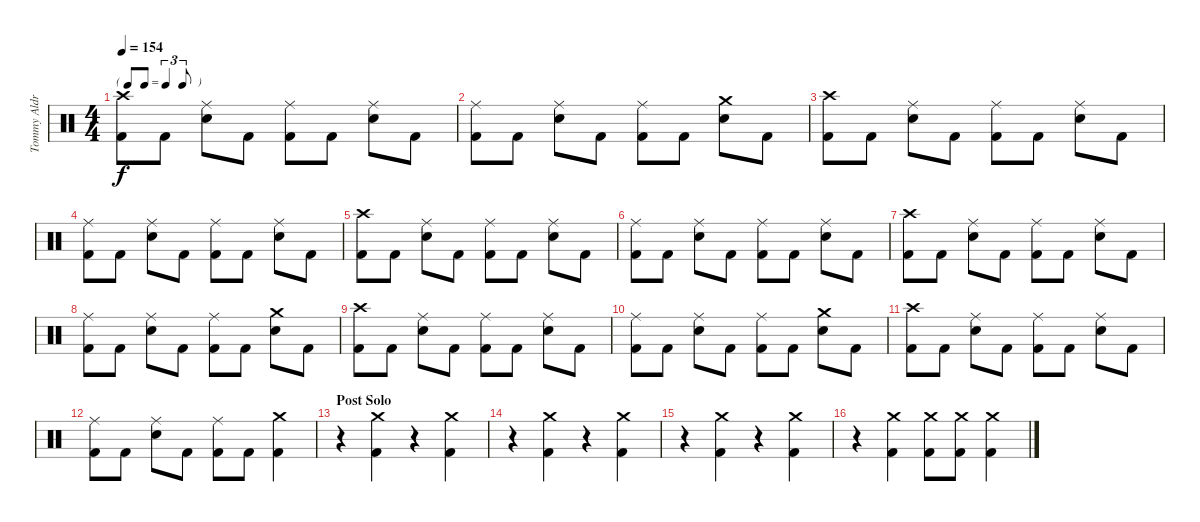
\track ("Tommy Aldridge (Drums)" "Tommy Aldr") {instrument percussion}
\staff {score}
\articulation defaults
\ts (4 4)
\tf triplet8th
\tempo 154
\clef neutral
\ks c
("Crash high (hit)" "Kick (hit) 2").8{dy f} "Kick (hit) 2".8 ("Ride (middle)" "Electric Snare (hit)").8 "Kick (hit) 2".8 ("Ride (middle)" "Kick (hit) 2").8 "Kick (hit) 2".8 ("Ride (middle)" "Electric Snare (hit)").8 "Kick (hit) 2".8 |
("Ride (middle)" "Kick (hit) 2").8 "Kick (hit) 2".8 ("Ride (middle)" "Electric Snare (hit)").8 "Kick (hit) 2".8 ("Ride (middle)" "Kick (hit) 2").8 "Kick (hit) 2".8 ("Crash medium (hit)" "Electric Snare (hit)").8 "Kick (hit) 2".8 |
("Crash high (hit)" "Kick (hit) 2").8 "Kick (hit) 2".8 ("Ride (middle)" "Electric Snare (hit)").8 "Kick (hit) 2".8 ("Ride (middle)" "Kick (hit) 2").8 "Kick (hit) 2".8 ("Ride (middle)" "Electric Snare (hit)").8 "Kick (hit) 2".8 |
("Ride (middle)" "Kick (hit) 2").8 "Kick (hit) 2".8 ("Ride (middle)" "Electric Snare (hit)").8 "Kick (hit) 2".8 ("Ride (middle)" "Kick (hit) 2").8 "Kick (hit) 2".8 ("Ride (middle)" "Electric Snare (hit)").8 "Kick (hit) 2".8 |
("Crash high (hit)" "Kick (hit) 2").8 "Kick (hit) 2".8 ("Ride (middle)" "Electric Snare (hit)").8 "Kick (hit) 2".8 ("Ride (middle)" "Kick (hit) 2").8 "Kick (hit) 2".8 ("Ride (middle)" "Electric Snare (hit)").8 "Kick (hit) 2".8 |
("Ride (middle)" "Kick (hit) 2").8 "Kick (hit) 2".8 ("Ride (middle)" "Electric Snare (hit)").8 "Kick (hit) 2".8 ("Ride (middle)" "Kick (hit) 2").8 "Kick (hit) 2".8 ("Ride (middle)" "Electric Snare (hit)").8 "Kick (hit) 2".8 |
("Crash high (hit)" "Kick (hit) 2").8 "Kick (hit) 2".8 ("Ride (middle)" "Electric Snare (hit)").8 "Kick (hit) 2".8 ("Ride (middle)" "Kick (hit) 2").8 "Kick (hit) 2".8 ("Ride (middle)" "Electric Snare (hit)").8 "Kick (hit) 2".8 |
("Ride (middle)" "Kick (hit) 2").8 "Kick (hit) 2".8 ("Ride (middle)" "Electric Snare (hit)").8 "Kick (hit) 2".8 ("Ride (middle)" "Kick (hit) 2").8 "Kick (hit) 2".8 ("Crash medium (hit)" "Electric Snare (hit)").8 "Kick (hit) 2".8 |
("Crash high (hit)" "Kick (hit) 2").8 "Kick (hit) 2".8 ("Ride (middle)" "Electric Snare (hit)").8 "Kick (hit) 2".8 ("Ride (middle)" "Kick (hit) 2").8 "Kick (hit) 2".8 ("Ride (middle)" "Electric Snare (hit)").8 "Kick (hit) 2".8 |
("Ride (middle)" "Kick (hit) 2").8 "Kick (hit) 2".8 ("Ride (middle)" "Electric Snare (hit)").8 "Kick (hit) 2".8 ("Ride (middle)" "Kick (hit) 2").8 "Kick (hit) 2".8 ("Crash medium (hit)" "Electric Snare (hit)").8 "Kick (hit) 2".8 |
("Crash high (hit)" "Kick (hit) 2").8 "Kick (hit) 2".8 ("Ride (middle)" "Electric Snare (hit)").8 "Kick (hit) 2".8 ("Ride (middle)" "Kick (hit) 2").8 "Kick (hit) 2".8 ("Ride (middle)" "Electric Snare (hit)").8 "Kick (hit) 2".8 |
("Ride (middle)" "Kick (hit) 2").8 "Kick (hit) 2".8 ("Ride (middle)" "Electric Snare (hit)").8 "Kick (hit) 2".8 ("Ride (middle)" "Kick (hit) 2").8 "Kick (hit) 2".8 ("Crash medium (hit)" "Kick (hit) 2").4 |
\section ("" "Post Solo")
r.4 ("Crash medium (hit)" "Kick (hit) 2").4 r.4 ("Crash medium (hit)" "Kick (hit) 2").4 |
r.4 ("Crash medium (hit)" "Kick (hit) 2").4 r.4 ("Crash medium (hit)" "Kick (hit) 2").4 |
r.4 ("Crash medium (hit)" "Kick (hit) 2").4 r.4 ("Crash medium (hit)" "Kick (hit) 2").4 |
r.4 ("Crash medium (hit)" "Kick (hit) 2").4 ("Crash medium (hit)" "Kick (hit) 2").8 ("Crash medium (hit)" "Kick (hit) 2").8 ("Crash medium (hit)" "Kick (hit) 2").4
